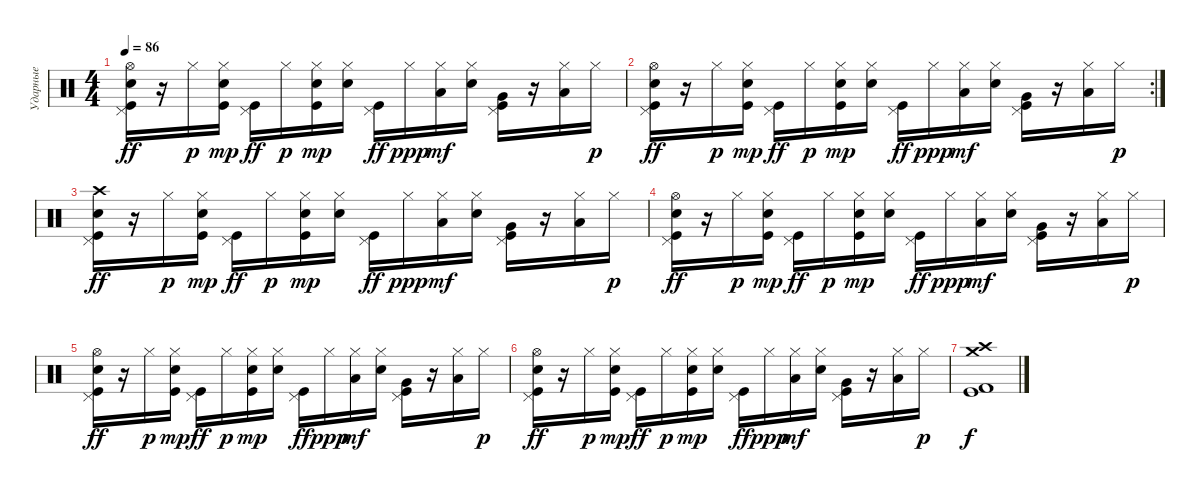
\track ("Ударные" "Ударные") {instrument percussion}
\staff {score}
\articulation defaults
\ts (4 4)
\tempo 86
\clef neutral
\ks c
("Pedal Hi-Hat (hit)" "Hi-Hat (open)" "Electric Snare (hit)" "Kick (hit)").16{dy ff} r.16 "Hi-Hat (closed)".16{dy p} ("Hi-Hat (closed)" "Electric Snare (hit)" "Kick (hit)").16{dy mp} ("Pedal Hi-Hat (hit)" "Kick (hit)").16{dy ff} "Hi-Hat (closed)".16{dy p} ("Hi-Hat (closed)" "Snare (hit) 2" "Kick (hit)").16{dy mp} ("Hi-Hat (closed)" "Snare (hit) 2").16 ("Pedal Hi-Hat (hit)" "Kick (hit)").16{dy ff} "Hi-Hat (closed)".16{dy ppp} ("Hi-Hat (closed)" "Low Tom (hit)").16{dy mf} ("Hi-Hat (closed)" "Electric Snare (hit)").16 ("Pedal Hi-Hat (hit)" "Very Low Tom (hit)" "Kick (hit)").16 r.16 ("Hi-Hat (closed)" "Low Floor Tom (hit)").16 "Hi-Hat (closed)".16{dy p} |
\rc 2
("Pedal Hi-Hat (hit)" "Hi-Hat (open)" "Electric Snare (hit)" "Kick (hit)").16{dy ff} r.16 "Hi-Hat (closed)".16{dy p} ("Hi-Hat (closed)" "Electric Snare (hit)" "Kick (hit)").16{dy mp} ("Pedal Hi-Hat (hit)" "Kick (hit)").16{dy ff} "Hi-Hat (closed)".16{dy p} ("Hi-Hat (closed)" "Snare (hit) 2" "Kick (hit)").16{dy mp} ("Hi-Hat (closed)" "Snare (hit) 2").16 ("Pedal Hi-Hat (hit)" "Kick (hit)").16{dy ff} "Hi-Hat (closed)".16{dy ppp} ("Hi-Hat (closed)" "Low Tom (hit)").16{dy mf} ("Hi-Hat (closed)" "Electric Snare (hit)").16 ("Pedal Hi-Hat (hit)" "Very Low Tom (hit)" "Kick (hit)").16 r.16 ("Hi-Hat (closed)" "Low Floor Tom (hit)").16 "Hi-Hat (closed)".16{dy p} |
("Pedal Hi-Hat (hit)" "Crash high (hit)" "Electric Snare (hit)" "Kick (hit)").16{dy ff} r.16 "Hi-Hat (closed)".16{dy p} ("Hi-Hat (closed)" "Electric Snare (hit)" "Kick (hit)").16{dy mp} ("Pedal Hi-Hat (hit)" "Kick (hit)").16{dy ff} "Hi-Hat (closed)".16{dy p} ("Hi-Hat (closed)" "Snare (hit) 2" "Kick (hit)").16{dy mp} ("Hi-Hat (closed)" "Snare (hit) 2").16 ("Pedal Hi-Hat (hit)" "Kick (hit)").16{dy ff} "Hi-Hat (closed)".16{dy ppp} ("Hi-Hat (closed)" "Low Tom (hit)").16{dy mf} ("Hi-Hat (closed)" "Electric Snare (hit)").16 ("Pedal Hi-Hat (hit)" "Very Low Tom (hit)" "Kick (hit)").16 r.16 ("Hi-Hat (closed)" "Low Floor Tom (hit)").16 "Hi-Hat (closed)".16{dy p} |
("Pedal Hi-Hat (hit)" "Hi-Hat (open)" "Electric Snare (hit)" "Kick (hit)").16{dy ff} r.16 "Hi-Hat (closed)".16{dy p} ("Hi-Hat (closed)" "Electric Snare (hit)" "Kick (hit)").16{dy mp} ("Pedal Hi-Hat (hit)" "Kick (hit)").16{dy ff} "Hi-Hat (closed)".16{dy p} ("Hi-Hat (closed)" "Snare (hit) 2" "Kick (hit)").16{dy mp} ("Hi-Hat (closed)" "Snare (hit) 2").16 ("Pedal Hi-Hat (hit)" "Kick (hit)").16{dy ff} "Hi-Hat (closed)".16{dy ppp} ("Hi-Hat (closed)" "Low Tom (hit)").16{dy mf} ("Hi-Hat (closed)" "Electric Snare (hit)").16 ("Pedal Hi-Hat (hit)" "Very Low Tom (hit)" "Kick (hit)").16 r.16 ("Hi-Hat (closed)" "Low Floor Tom (hit)").16 "Hi-Hat (closed)".16{dy p} |
("Pedal Hi-Hat (hit)" "Hi-Hat (open)" "Electric Snare (hit)" "Kick (hit)").16{dy ff} r.16 "Hi-Hat (closed)".16{dy p} ("Hi-Hat (closed)" "Electric Snare (hit)" "Kick (hit)").16{dy mp} ("Pedal Hi-Hat (hit)" "Kick (hit)").16{dy ff} "Hi-Hat (closed)".16{dy p} ("Hi-Hat (closed)" "Snare (hit) 2" "Kick (hit)").16{dy mp} ("Hi-Hat (closed)" "Snare (hit) 2").16 ("Pedal Hi-Hat (hit)" "Kick (hit)").16{dy ff} "Hi-Hat (closed)".16{dy ppp} ("Hi-Hat (closed)" "Low Tom (hit)").16{dy mf} ("Hi-Hat (closed)" "Electric Snare (hit)").16 ("Pedal Hi-Hat (hit)" "Very Low Tom (hit)" "Kick (hit)").16 r.16 ("Hi-Hat (closed)" "Low Floor Tom (hit)").16 "Hi-Hat (closed)".16{dy p} |
("Pedal Hi-Hat (hit)" "Hi-Hat (open)" "Electric Snare (hit)" "Kick (hit)").16{dy ff} r.16 "Hi-Hat (closed)".16{dy p} ("Hi-Hat (closed)" "Electric Snare (hit)" "Kick (hit)").16{dy mp} ("Pedal Hi-Hat (hit)" "Kick (hit)").16{dy ff} "Hi-Hat (closed)".16{dy p} ("Hi-Hat (closed)" "Snare (hit) 2" "Kick (hit)").16{dy mp} ("Hi-Hat (closed)" "Snare (hit) 2").16 ("Pedal Hi-Hat (hit)" "Kick (hit)").16{dy ff} "Hi-Hat (closed)".16{dy ppp} ("Hi-Hat (closed)" "Low Tom (hit)").16{dy mf} ("Hi-Hat (closed)" "Electric Snare (hit)").16 ("Pedal Hi-Hat (hit)" "Very Low Tom (hit)" "Kick (hit)").16 r.16 ("Hi-Hat (closed)" "Low Floor Tom (hit)").16 "Hi-Hat (closed)".16{dy p} |
("Crash high (hit)" "Crash medium (hit)" "Kick (hit) 2" "Kick (hit)").1{dy f}
